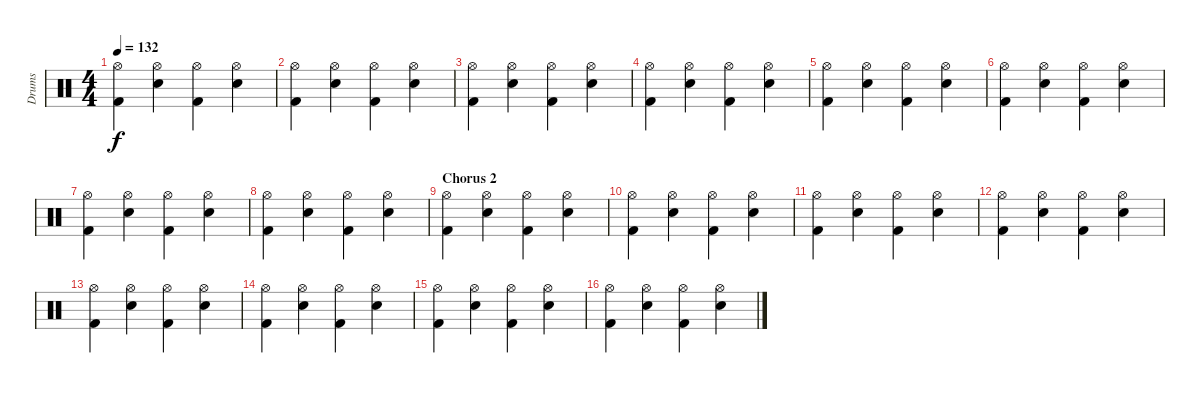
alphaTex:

\track ("Drums" "Drums") {instrument percussion}
\staff {score}
\articulation defaults
\ts (4 4)
\tempo 132
\clef neutral
\ks c
("Kick (hit) 2" "Hi-Hat (open)").4{dy f} ("Snare (hit) 2" "Hi-Hat (open)").4 ("Kick (hit) 2" "Hi-Hat (open)").4 ("Snare (hit) 2" "Hi-Hat (open)").4 |
("Kick (hit) 2" "Hi-Hat (open)").4 ("Snare (hit) 2" "Hi-Hat (open)").4 ("Kick (hit) 2" "Hi-Hat (open)").4 ("Snare (hit) 2" "Hi-Hat (open)").4 |
("Kick (hit) 2" "Hi-Hat (open)").4 ("Snare (hit) 2" "Hi-Hat (open)").4 ("Kick (hit) 2" "Hi-Hat (open)").4 ("Snare (hit) 2" "Hi-Hat (open)").4 |
("Kick (hit) 2" "Hi-Hat (open)").4 ("Snare (hit) 2" "Hi-Hat (open)").4 ("Kick (hit) 2" "Hi-Hat (open)").4 ("Snare (hit) 2" "Hi-Hat (open)").4 |
("Kick (hit) 2" "Hi-Hat (open)").4 ("Snare (hit) 2" "Hi-Hat (open)").4 ("Kick (hit) 2" "Hi-Hat (open)").4 ("Snare (hit) 2" "Hi-Hat (open)").4 |
("Kick (hit) 2" "Hi-Hat (open)").4 ("Snare (hit) 2" "Hi-Hat (open)").4 ("Kick (hit) 2" "Hi-Hat (open)").4 ("Snare (hit) 2" "Hi-Hat (open)").4 |
("Kick (hit) 2" "Hi-Hat (open)").4 ("Snare (hit) 2" "Hi-Hat (open)").4 ("Kick (hit) 2" "Hi-Hat (open)").4 ("Snare (hit) 2" "Hi-Hat (open)").4 |
("Kick (hit) 2" "Hi-Hat (open)").4 ("Snare (hit) 2" "Hi-Hat (open)").4 ("Kick (hit) 2" "Hi-Hat (open)").4 ("Snare (hit) 2" "Hi-Hat (open)").4 |
\section ("" "Chorus 2")
("Kick (hit) 2" "Hi-Hat (open)").4 ("Snare (hit) 2" "Hi-Hat (open)").4 ("Kick (hit) 2" "Hi-Hat (open)").4 ("Snare (hit) 2" "Hi-Hat (open)").4 |
("Kick (hit) 2" "Hi-Hat (open)").4 ("Snare (hit) 2" "Hi-Hat (open)").4 ("Kick (hit) 2" "Hi-Hat (open)").4 ("Snare (hit) 2" "Hi-Hat (open)").4 |
("Kick (hit) 2" "Hi-Hat (open)").4 ("Snare (hit) 2" "Hi-Hat (open)").4 ("Kick (hit) 2" "Hi-Hat (open)").4 ("Snare (hit) 2" "Hi-Hat (open)").4 |
("Kick (hit) 2" "Hi-Hat (open)").4 ("Snare (hit) 2" "Hi-Hat (open)").4 ("Kick (hit) 2" "Hi-Hat (open)").4 ("Snare (hit) 2" "Hi-Hat (open)").4 |
("Kick (hit) 2" "Hi-Hat (open)").4 ("Snare (hit) 2" "Hi-Hat (open)").4 ("Kick (hit) 2" "Hi-Hat (open)").4 ("Snare (hit) 2" "Hi-Hat (open)").4 |
("Kick (hit) 2" "Hi-Hat (open)").4 ("Snare (hit) 2" "Hi-Hat (open)").4 ("Kick (hit) 2" "Hi-Hat (open)").4 ("Snare (hit) 2" "Hi-Hat (open)").4 |
("Kick (hit) 2" "Hi-Hat (open)").4 ("Snare (hit) 2" "Hi-Hat (open)").4 ("Kick (hit) 2" "Hi-Hat (open)").4 ("Snare (hit) 2" "Hi-Hat (open)").4 |
("Kick (hit) 2" "Hi-Hat (open)").4 ("Snare (hit) 2" "Hi-Hat (open)").4 ("Kick (hit) 2" "Hi-Hat (open)").4 ("Snare (hit) 2" "Hi-Hat (open)").4
